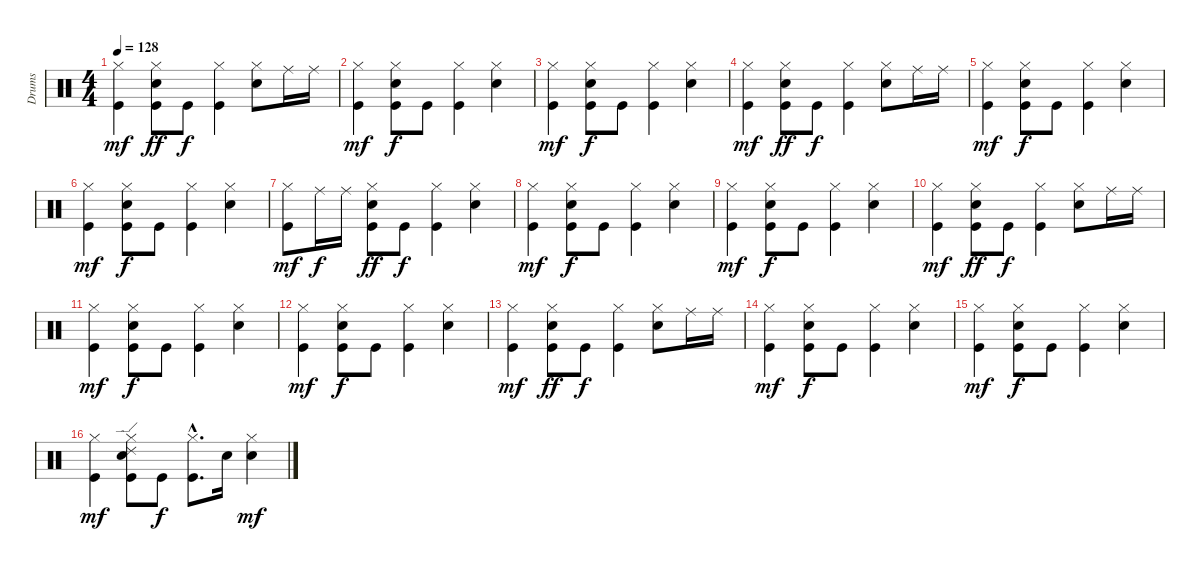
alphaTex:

\track ("Drums               " "Drums     ") {instrument percussion}
\staff {score}
\articulation defaults
\ts (4 4)
\tempo 128
\clef neutral
\ks c
("Hi-Hat (closed)" "Kick (hit)").4{dy mf} ("Hi-Hat (closed)" "Electric Snare (hit)" "Kick (hit)").8{dy ff} "Kick (hit)".8{dy f} ("Hi-Hat (closed)" "Kick (hit)").4 ("Hi-Hat (closed)" "Electric Snare (hit)").8 "Ride (middle)".16 "Ride (middle)".16 |
("Hi-Hat (closed)" "Kick (hit)").4{dy mf} ("Hi-Hat (closed)" "Electric Snare (hit)" "Kick (hit)").8{dy f} "Kick (hit)".8 ("Hi-Hat (closed)" "Kick (hit)").4 ("Hi-Hat (closed)" "Electric Snare (hit)").4 |
("Hi-Hat (closed)" "Kick (hit)").4{dy mf} ("Hi-Hat (closed)" "Electric Snare (hit)" "Kick (hit)").8{dy f} "Kick (hit)".8 ("Hi-Hat (closed)" "Kick (hit)").4 ("Hi-Hat (closed)" "Electric Snare (hit)").4 |
("Hi-Hat (closed)" "Kick (hit)").4{dy mf} ("Hi-Hat (closed)" "Electric Snare (hit)" "Kick (hit)").8{dy ff} "Kick (hit)".8{dy f} ("Hi-Hat (closed)" "Kick (hit)").4 ("Hi-Hat (closed)" "Electric Snare (hit)").8 "Ride (middle)".16 "Ride (middle)".16 |
("Hi-Hat (closed)" "Kick (hit)").4{dy mf} ("Hi-Hat (closed)" "Electric Snare (hit)" "Kick (hit)").8{dy f} "Kick (hit)".8 ("Hi-Hat (closed)" "Kick (hit)").4 ("Hi-Hat (closed)" "Electric Snare (hit)").4 |
("Hi-Hat (closed)" "Kick (hit)").4{dy mf} ("Hi-Hat (closed)" "Electric Snare (hit)" "Kick (hit)").8{dy f} "Kick (hit)".8 ("Hi-Hat (closed)" "Kick (hit)").4 ("Hi-Hat (closed)" "Electric Snare (hit)").4 |
("Hi-Hat (closed)" "Kick (hit)").8{dy mf} "Ride (middle)".16{dy f} "Ride (middle)".16 ("Hi-Hat (closed)" "Electric Snare (hit)" "Kick (hit)").8{dy ff} "Kick (hit)".8{dy f} ("Hi-Hat (closed)" "Kick (hit)").4 ("Hi-Hat (closed)" "Electric Snare (hit)").4 |
("Hi-Hat (closed)" "Kick (hit)").4{dy mf} ("Hi-Hat (closed)" "Electric Snare (hit)" "Kick (hit)").8{dy f} "Kick (hit)".8 ("Hi-Hat (closed)" "Kick (hit)").4 ("Hi-Hat (closed)" "Electric Snare (hit)").4 |
("Hi-Hat (closed)" "Kick (hit)").4{dy mf} ("Hi-Hat (closed)" "Electric Snare (hit)" "Kick (hit)").8{dy f} "Kick (hit)".8 ("Hi-Hat (closed)" "Kick (hit)").4 ("Hi-Hat (closed)" "Electric Snare (hit)").4 |
("Hi-Hat (closed)" "Kick (hit)").4{dy mf} ("Hi-Hat (closed)" "Electric Snare (hit)" "Kick (hit)").8{dy ff} "Kick (hit)".8{dy f} ("Hi-Hat (closed)" "Kick (hit)").4 ("Hi-Hat (closed)" "Electric Snare (hit)").8 "Ride (middle)".16 "Ride (middle)".16 |
("Hi-Hat (closed)" "Kick (hit)").4{dy mf} ("Hi-Hat (closed)" "Electric Snare (hit)" "Kick (hit)").8{dy f} "Kick (hit)".8 ("Hi-Hat (closed)" "Kick (hit)").4 ("Hi-Hat (closed)" "Electric Snare (hit)").4 |
("Hi-Hat (closed)" "Kick (hit)").4{dy mf} ("Hi-Hat (closed)" "Electric Snare (hit)" "Kick (hit)").8{dy f} "Kick (hit)".8 ("Hi-Hat (closed)" "Kick (hit)").4 ("Hi-Hat (closed)" "Electric Snare (hit)").4 |
("Hi-Hat (closed)" "Kick (hit)").4{dy mf} ("Hi-Hat (closed)" "Electric Snare (hit)" "Kick (hit)").8{dy ff} "Kick (hit)".8{dy f} ("Hi-Hat (closed)" "Kick (hit)").4 ("Hi-Hat (closed)" "Electric Snare (hit)").8 "Ride (middle)".16 "Ride (middle)".16 |
("Hi-Hat (closed)" "Kick (hit)").4{dy mf} ("Hi-Hat (closed)" "Electric Snare (hit)" "Kick (hit)").8{dy f} "Kick (hit)".8 ("Hi-Hat (closed)" "Kick (hit)").4 ("Hi-Hat (closed)" "Electric Snare (hit)").4 |
("Hi-Hat (closed)" "Kick (hit)").4{dy mf} ("Hi-Hat (closed)" "Electric Snare (hit)" "Kick (hit)").8{dy f} "Kick (hit)".8 ("Hi-Hat (closed)" "Kick (hit)").4 ("Hi-Hat (closed)" "Electric Snare (hit)").4 |
("Hi-Hat (closed)" "Kick (hit)").4{dy mf} ("Ride (edge) 2" "Hi-Hat (closed)" "Electric Snare (hit)" "Kick (hit)").8 "Kick (hit)".8{dy f} ("Hi-Hat (closed)"{hac} "Kick (hit)"{hac}).8{d} "Electric Snare (hit)".16 ("Hi-Hat (closed)" "Electric Snare (hit)").4{dy mf}
